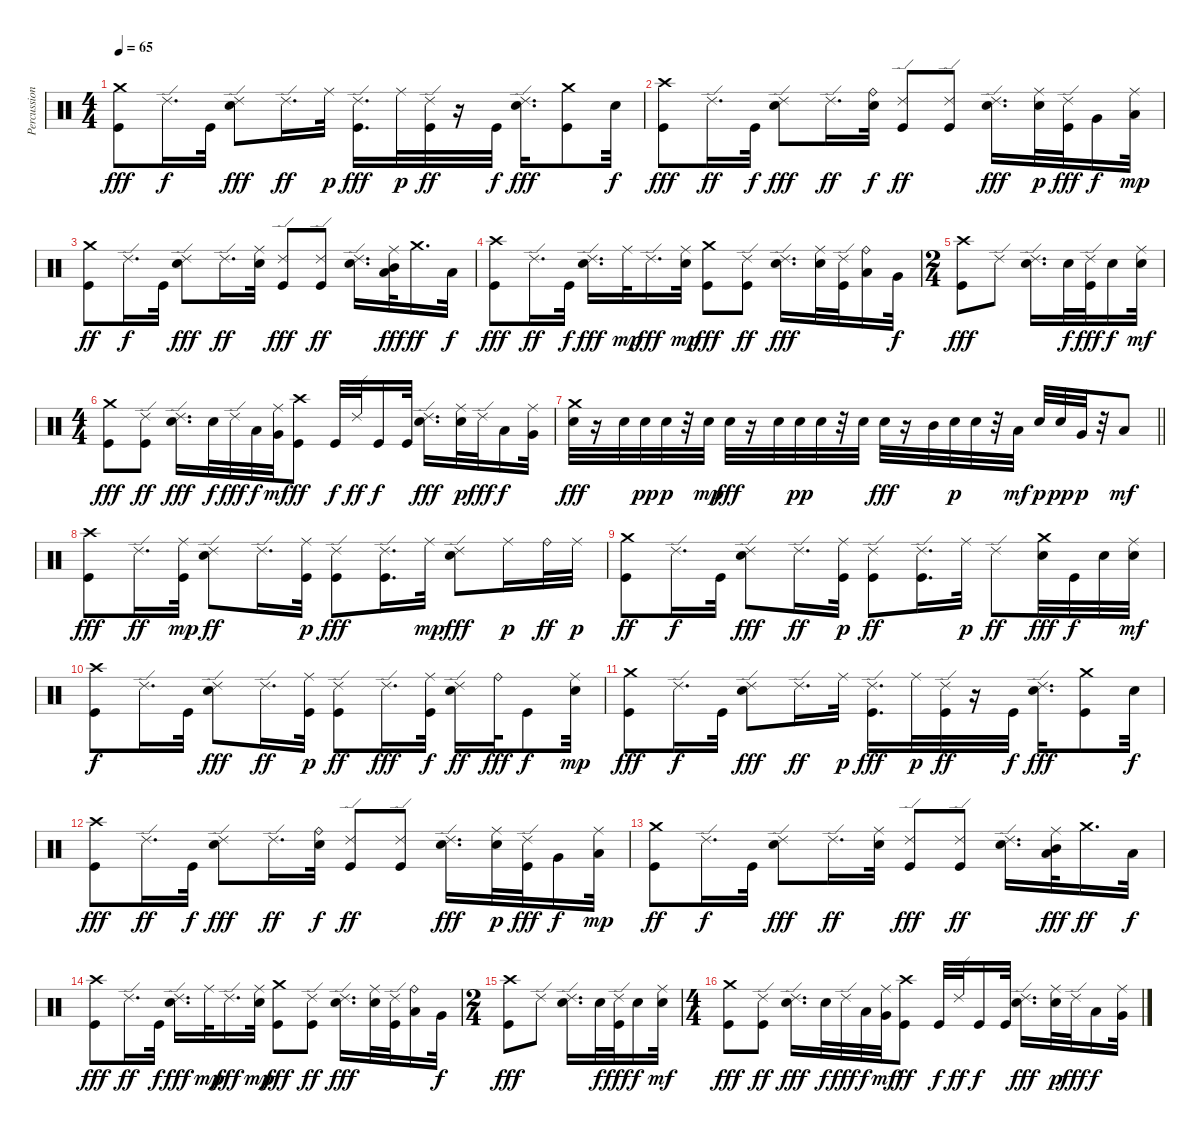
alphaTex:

\track ("Percussions" "Percussion") {instrument percussion}
\staff {score}
\articulation defaults
\ts (4 4)
\tempo 65
\clef neutral
\ks c
("Crash medium (hit)" "Kick (hit)").8{dy fff} "Ride (edge) 2".16{d dy f} "Kick (hit)".32 ("Ride (edge) 2" "Electric Snare (hit)").8{dy fff} "Ride (edge) 2".16{d dy ff} "Ride (middle)".32{dy p} ("Ride (edge) 2" "Kick (hit)").16{d dy fff} "Ride (middle)".32{dy p} ("Ride (edge) 2" "Kick (hit)").32{dy ff} r.16 "Kick (hit)".32{dy f} ("Ride (edge) 2" "Electric Snare (hit)").16{d dy fff} ("Crash medium (hit)" "Kick (hit)").8 "Electric Snare (hit)".32{dy f} |
("Crash high (hit)" "Kick (hit)").8{dy fff} "Ride (edge) 2".16{d dy ff} "Kick (hit)".32{dy f} ("Ride (edge) 2" "Electric Snare (hit)").8{dy fff} "Ride (edge) 2".16{d dy ff} ("Ride (bell)" "Electric Snare (hit)").32{dy f} ("Ride (edge) 2" "Kick (hit)").8{dy ff} ("Ride (edge) 2" "Kick (hit)").8 ("Ride (edge) 2" "Electric Snare (hit)").16{d dy fff} ("Ride (middle)" "Electric Snare (hit)").32{dy p} ("Ride (edge) 2" "Kick (hit)").32{dy fff} "Very Low Tom (hit)".16{dy f} ("Ride (middle)" "Low Floor Tom (hit)").32{dy mp} |
("Crash medium (hit)" "Kick (hit)").8{dy ff} "Ride (edge) 2".16{d dy f} "Kick (hit)".32 ("Ride (edge) 2" "Electric Snare (hit)").8{dy fff} "Ride (edge) 2".16{d dy ff} ("Ride (middle)" "Electric Snare (hit)").32 ("Ride (edge) 2" "Kick (hit)").8{dy fff} ("Ride (edge) 2" "Kick (hit)").8{dy ff} ("Ride (edge) 2" "Electric Snare (hit)").16{d} ("Ride (middle)" "Mid Tom (hit)" "Low Tom (hit)").32{dy fff} "Crash medium (hit)".16{d dy ff} "Low Floor Tom (hit)".32{dy f} |
("Crash high (hit)" "Kick (hit)").8{dy fff} "Ride (edge) 2".16{d dy ff} "Kick (hit)".32{dy f} ("Ride (edge) 2" "Electric Snare (hit)").16{d dy fff} "Ride (middle)".32{dy mp} "Ride (edge) 2".16{d dy fff} ("Ride (middle)" "Electric Snare (hit)").32{dy mp} ("Crash medium (hit)" "Kick (hit)").8{dy fff} ("Ride (edge) 2" "Kick (hit)").8{dy ff} ("Ride (edge) 2" "Electric Snare (hit)").16{d dy fff} ("Ride (middle)" "Electric Snare (hit)").32 ("Ride (edge) 2" "Kick (hit)").32 ("Ride (bell)" "Low Tom (hit)").16 "Very Low Tom (hit)".32{dy f} |
\ts (2 4)
("Crash high (hit)" "Kick (hit)").8{dy fff} "Ride (edge) 2".8 ("Ride (edge) 2" "Electric Snare (hit)").16{d} "Electric Snare (hit)".32{dy f} ("Ride (edge) 2" "Kick (hit)").32{dy fff} "Electric Snare (hit)".16{dy f} ("Ride (middle)" "Electric Snare (hit)").32{dy mf} |
\ts (4 4)
("Crash medium (hit)" "Kick (hit)").8{dy fff} ("Ride (edge) 2" "Kick (hit)").8{dy ff} ("Ride (edge) 2" "Electric Snare (hit)").16{d dy fff} "Electric Snare (hit)".32{dy f} "Ride (edge) 2".32{dy fff} "Low Tom (hit)".32{dy f} ("Ride (middle)" "Very Low Tom (hit)").32{dy mf} ("Crash high (hit)" "Kick (hit)").8{dy ff} "Kick (hit)".32{dy f} "Ride (edge) 2".32{dy ff} "Kick (hit)".16{dy f} "Kick (hit)".32 ("Ride (edge) 2" "Electric Snare (hit)").16{d dy fff} ("Ride (middle)" "Electric Snare (hit)").32{dy p} "Ride (edge) 2".32{dy fff} "Low Tom (hit)".16{dy f} ("Ride (middle)" "Very Low Tom (hit)").32 |
\barLineRight lightlight
("Crash medium (hit)" "Electric Snare (hit)").32{dy fff} r.16 "Electric Snare (hit)".32 "Electric Snare (hit)".32{dy pp} "Electric Snare (hit)".32{dy p} r.32 "Electric Snare (hit)".32{dy mp} "Electric Snare (hit)".32{dy fff} r.16 "Electric Snare (hit)".32 "Electric Snare (hit)".32{dy pp} "Electric Snare (hit)".32 r.32 "Electric Snare (hit)".32 "Electric Snare (hit)".32{dy fff} r.16 "Mid Tom (hit)".32 "Electric Snare (hit)".32{dy p} "Electric Snare (hit)".32 r.32 "Low Tom (hit)".32{dy mf} "Electric Snare (hit)".32{dy p} "Electric Snare (hit)".32{dy pp} "Very Low Tom (hit)".32{dy p} r.32 "Low Floor Tom (hit)".8{dy mf} |
("Crash high (hit)" "Kick (hit)").8{dy fff} "Ride (edge) 2".16{d dy ff} ("Ride (middle)" "Kick (hit)").32{dy mp} ("Ride (edge) 2" "Electric Snare (hit)").8{dy ff} "Ride (edge) 2".16{d} ("Ride (middle)" "Kick (hit)").32{dy p} ("Ride (edge) 2" "Kick (hit)").8{dy fff} ("Ride (edge) 2" "Kick (hit)").16{d} "Ride (middle)".32{dy mp} ("Ride (edge) 2" "Electric Snare (hit)").8{dy fff} "Ride (middle)".16{dy p} "Ride (bell)".32{dy ff} "Ride (middle)".32{dy p} |
("Crash medium (hit)" "Kick (hit)").8{dy ff} "Ride (edge) 2".16{d dy f} "Kick (hit)".32 ("Ride (edge) 2" "Electric Snare (hit)").8{dy fff} "Ride (edge) 2".16{d dy ff} ("Ride (middle)" "Kick (hit)").32{dy p} ("Ride (edge) 2" "Kick (hit)").8{dy ff} ("Ride (edge) 2" "Kick (hit)").16{d} "Ride (middle)".32{dy p} "Ride (edge) 2".8{dy ff} ("Crash medium (hit)" "Electric Snare (hit)").32{dy fff} "Kick (hit)".32{dy f} "Electric Snare (hit)".32 ("Ride (middle)" "Electric Snare (hit)").32{dy mf} |
("Crash high (hit)" "Kick (hit)").8{dy f} "Ride (edge) 2".16{d} "Kick (hit)".32 ("Ride (edge) 2" "Electric Snare (hit)").8{dy fff} "Ride (edge) 2".16{d dy ff} ("Ride (middle)" "Kick (hit)").32{dy p} ("Ride (edge) 2" "Kick (hit)").8{dy ff} "Ride (edge) 2".16{d dy fff} ("Ride (middle)" "Kick (hit)").32{dy f} ("Ride (edge) 2" "Electric Snare (hit)").16{dy ff} "Ride (bell)".32{dy fff} "Kick (hit)".8{dy f} ("Ride (middle)" "Electric Snare (hit)").32{dy mp} |
("Crash medium (hit)" "Kick (hit)").8{dy fff} "Ride (edge) 2".16{d dy f} "Kick (hit)".32 ("Ride (edge) 2" "Electric Snare (hit)").8{dy fff} "Ride (edge) 2".16{d dy ff} "Ride (middle)".32{dy p} ("Ride (edge) 2" "Kick (hit)").16{d dy fff} "Ride (middle)".32{dy p} ("Ride (edge) 2" "Kick (hit)").32{dy ff} r.16 "Kick (hit)".32{dy f} ("Ride (edge) 2" "Electric Snare (hit)").16{d dy fff} ("Crash medium (hit)" "Kick (hit)").8 "Electric Snare (hit)".32{dy f} |
("Crash high (hit)" "Kick (hit)").8{dy fff} "Ride (edge) 2".16{d dy ff} "Kick (hit)".32{dy f} ("Ride (edge) 2" "Electric Snare (hit)").8{dy fff} "Ride (edge) 2".16{d dy ff} ("Ride (bell)" "Electric Snare (hit)").32{dy f} ("Ride (edge) 2" "Kick (hit)").8{dy ff} ("Ride (edge) 2" "Kick (hit)").8 ("Ride (edge) 2" "Electric Snare (hit)").16{d dy fff} ("Ride (middle)" "Electric Snare (hit)").32{dy p} ("Ride (edge) 2" "Kick (hit)").32{dy fff} "Very Low Tom (hit)".16{dy f} ("Ride (middle)" "Low Floor Tom (hit)").32{dy mp} |
("Crash medium (hit)" "Kick (hit)").8{dy ff} "Ride (edge) 2".16{d dy f} "Kick (hit)".32 ("Ride (edge) 2" "Electric Snare (hit)").8{dy fff} "Ride (edge) 2".16{d dy ff} ("Ride (middle)" "Electric Snare (hit)").32 ("Ride (edge) 2" "Kick (hit)").8{dy fff} ("Ride (edge) 2" "Kick (hit)").8{dy ff} ("Ride (edge) 2" "Electric Snare (hit)").16{d} ("Ride (middle)" "Mid Tom (hit)" "Low Tom (hit)").32{dy fff} "Crash medium (hit)".16{d dy ff} "Low Floor Tom (hit)".32{dy f} |
("Crash high (hit)" "Kick (hit)").8{dy fff} "Ride (edge) 2".16{d dy ff} "Kick (hit)".32{dy f} ("Ride (edge) 2" "Electric Snare (hit)").16{d txt "" dy fff} "Ride (middle)".32{dy mp} "Ride (edge) 2".16{d dy fff} ("Ride (middle)" "Electric Snare (hit)").32{dy mp} ("Crash medium (hit)" "Kick (hit)").8{dy fff} ("Ride (edge) 2" "Kick (hit)").8{dy ff} ("Ride (edge) 2" "Electric Snare (hit)").16{d dy fff} ("Ride (middle)" "Electric Snare (hit)").32 ("Ride (edge) 2" "Kick (hit)").32 ("Ride (bell)" "Low Tom (hit)").16 "Very Low Tom (hit)".32{dy f} |
\ts (2 4)
("Crash high (hit)" "Kick (hit)").8{dy fff} "Ride (edge) 2".8 ("Ride (edge) 2" "Electric Snare (hit)").16{d} "Electric Snare (hit)".32{dy f} ("Ride (edge) 2" "Kick (hit)").32{dy fff} "Electric Snare (hit)".16{dy f} ("Ride (middle)" "Electric Snare (hit)").32{dy mf} |
\ts (4 4)
("Crash medium (hit)" "Kick (hit)").8{dy fff} ("Ride (edge) 2" "Kick (hit)").8{dy ff} ("Ride (edge) 2" "Electric Snare (hit)").16{d dy fff} "Electric Snare (hit)".32{dy f} "Ride (edge) 2".32{dy fff} "Low Tom (hit)".32{dy f} ("Ride (middle)" "Very Low Tom (hit)").32{dy mf} ("Crash high (hit)" "Kick (hit)").8{dy ff} "Kick (hit)".32{dy f} "Ride (edge) 2".32{dy ff} "Kick (hit)".16{dy f} "Kick (hit)".32 ("Ride (edge) 2" "Electric Snare (hit)").16{d dy fff} ("Ride (middle)" "Electric Snare (hit)").32{dy p} "Ride (edge) 2".32{dy fff} "Low Tom (hit)".16{dy f} ("Ride (middle)" "Very Low Tom (hit)").32
